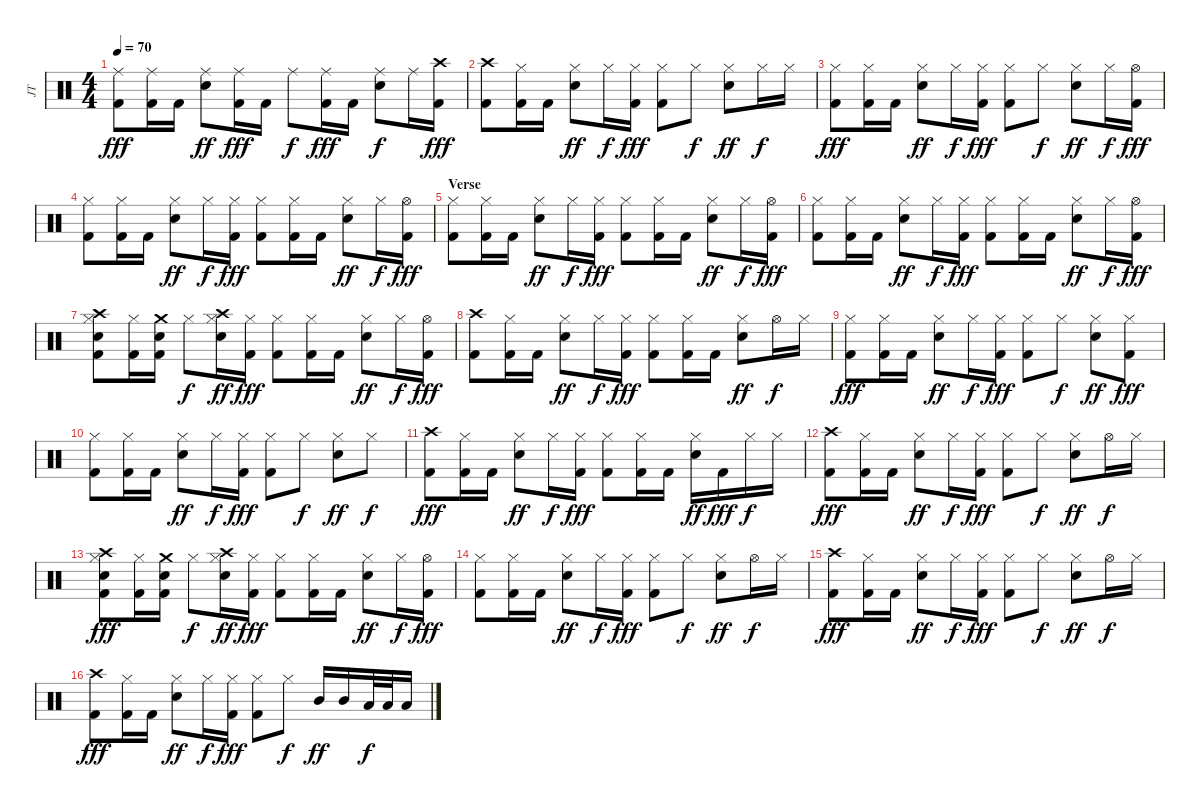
\track ("JT" "JT") {instrument percussion}
\staff {score}
\articulation defaults
\ts (4 4)
\tempo 70
\clef neutral
\ks c
("Ride (middle)" "Kick (hit) 2").8{dy fff} ("Ride (middle)" "Kick (hit) 2").16 "Kick (hit) 2".16 ("Ride (middle)" "Electric Snare (hit)").8{dy ff} ("Ride (middle)" "Kick (hit) 2").16{dy fff} "Kick (hit) 2".16 "Ride (middle)".8{dy f} ("Ride (middle)" "Kick (hit) 2").16{dy fff} "Kick (hit) 2".16 ("Ride (middle)" "Electric Snare (hit)").8{dy f} "Ride (middle)".16 ("Crash high (hit)" "Kick (hit) 2").16{dy fff} |
("Crash high (hit)" "Kick (hit) 2").8 ("Hi-Hat (closed)" "Kick (hit) 2").16 "Kick (hit) 2".16 ("Hi-Hat (closed)" "Electric Snare (hit)").8{dy ff} "Hi-Hat (closed)".16{dy f} ("Hi-Hat (closed)" "Kick (hit) 2").16{dy fff} ("Hi-Hat (closed)" "Kick (hit) 2").8 "Hi-Hat (closed)".8{dy f} ("Hi-Hat (closed)" "Electric Snare (hit)").8{dy ff} "Hi-Hat (closed)".16{dy f} "Hi-Hat (closed)".16 |
("Hi-Hat (closed)" "Kick (hit) 2").8{dy fff} ("Hi-Hat (closed)" "Kick (hit) 2").16 "Kick (hit) 2".16 ("Hi-Hat (closed)" "Electric Snare (hit)").8{dy ff} "Hi-Hat (closed)".16{dy f} ("Hi-Hat (closed)" "Kick (hit) 2").16{dy fff} ("Hi-Hat (closed)" "Kick (hit) 2").8 "Hi-Hat (closed)".8{dy f} ("Hi-Hat (closed)" "Electric Snare (hit)").8{dy ff} "Hi-Hat (closed)".16{dy f} ("Hi-Hat (open)" "Kick (hit) 2").16{dy fff} |
("Hi-Hat (closed)" "Kick (hit) 2").8 ("Hi-Hat (closed)" "Kick (hit) 2").16 "Kick (hit) 2".16 ("Hi-Hat (closed)" "Electric Snare (hit)").8{dy ff} "Hi-Hat (closed)".16{dy f} ("Hi-Hat (closed)" "Kick (hit) 2").16{dy fff} ("Hi-Hat (closed)" "Kick (hit) 2").8 ("Hi-Hat (closed)" "Kick (hit) 2").16 "Kick (hit) 2".16 ("Hi-Hat (closed)" "Electric Snare (hit)").8{dy ff} "Hi-Hat (closed)".16{dy f} ("Hi-Hat (open)" "Kick (hit) 2").16{dy fff} |
\section ("" "Verse")
("Hi-Hat (closed)" "Kick (hit) 2").8 ("Hi-Hat (closed)" "Kick (hit) 2").16 "Kick (hit) 2".16 ("Hi-Hat (closed)" "Electric Snare (hit)").8{dy ff} "Hi-Hat (closed)".16{dy f} ("Hi-Hat (closed)" "Kick (hit) 2").16{dy fff} ("Hi-Hat (closed)" "Kick (hit) 2").8 ("Hi-Hat (closed)" "Kick (hit) 2").16 "Kick (hit) 2".16 ("Hi-Hat (closed)" "Electric Snare (hit)").8{dy ff} "Hi-Hat (closed)".16{dy f} ("Hi-Hat (open)" "Kick (hit) 2").16{dy fff} |
("Hi-Hat (closed)" "Kick (hit) 2").8 ("Hi-Hat (closed)" "Kick (hit) 2").16 "Kick (hit) 2".16 ("Hi-Hat (closed)" "Electric Snare (hit)").8{dy ff} "Hi-Hat (closed)".16{dy f} ("Hi-Hat (closed)" "Kick (hit) 2").16{dy fff} ("Hi-Hat (closed)" "Kick (hit) 2").8 ("Hi-Hat (closed)" "Kick (hit) 2").16 "Kick (hit) 2".16 ("Hi-Hat (closed)" "Electric Snare (hit)").8{dy ff} "Hi-Hat (closed)".16{dy f} ("Hi-Hat (open)" "Kick (hit) 2").16{dy fff} |
("Crash high (hit)" "Hi-Hat (closed)" "Electric Snare (hit)" "Kick (hit) 2").8 ("Hi-Hat (closed)" "Kick (hit) 2").16 ("Crash medium (hit)" "Electric Snare (hit)" "Kick (hit) 2").16 "Hi-Hat (closed)".8{dy f} ("Crash high (hit)" "Hi-Hat (closed)" "Electric Snare (hit)").16{dy ff} ("Hi-Hat (closed)" "Kick (hit) 2").16{dy fff} ("Hi-Hat (closed)" "Kick (hit) 2").8 ("Hi-Hat (closed)" "Kick (hit) 2").16 "Kick (hit) 2".16 ("Hi-Hat (closed)" "Electric Snare (hit)").8{dy ff} "Hi-Hat (closed)".16{dy f} ("Hi-Hat (open)" "Kick (hit) 2").16{dy fff} |
("Crash high (hit)" "Kick (hit) 2").8 ("Hi-Hat (closed)" "Kick (hit) 2").16 "Kick (hit) 2".16 ("Hi-Hat (closed)" "Electric Snare (hit)").8{dy ff} "Hi-Hat (closed)".16{dy f} ("Hi-Hat (closed)" "Kick (hit) 2").16{dy fff} ("Hi-Hat (closed)" "Kick (hit) 2").8 ("Hi-Hat (closed)" "Kick (hit) 2").16 "Kick (hit) 2".16 ("Hi-Hat (closed)" "Electric Snare (hit)").8{dy ff} "Hi-Hat (open)".16{dy f} "Hi-Hat (closed)".16 |
("Hi-Hat (closed)" "Kick (hit) 2").8{dy fff} ("Hi-Hat (closed)" "Kick (hit) 2").16 "Kick (hit) 2".16 ("Hi-Hat (closed)" "Electric Snare (hit)").8{dy ff} "Hi-Hat (closed)".16{dy f} ("Hi-Hat (closed)" "Kick (hit) 2").16{dy fff} ("Hi-Hat (closed)" "Kick (hit) 2").8 "Hi-Hat (closed)".8{dy f} ("Hi-Hat (closed)" "Electric Snare (hit)").8{dy ff} ("Hi-Hat (closed)" "Kick (hit) 2").8{dy fff} |
("Hi-Hat (closed)" "Kick (hit) 2").8 ("Hi-Hat (closed)" "Kick (hit) 2").16 "Kick (hit) 2".16 ("Hi-Hat (closed)" "Electric Snare (hit)").8{dy ff} "Hi-Hat (closed)".16{dy f} ("Hi-Hat (closed)" "Kick (hit) 2").16{dy fff} ("Hi-Hat (closed)" "Kick (hit) 2").8 "Hi-Hat (closed)".8{dy f} ("Hi-Hat (closed)" "Electric Snare (hit)").8{dy ff} "Hi-Hat (closed)".8{dy f} |
("Crash high (hit)" "Kick (hit) 2").8{dy fff} ("Hi-Hat (closed)" "Kick (hit) 2").16 "Kick (hit) 2".16 ("Hi-Hat (closed)" "Electric Snare (hit)").8{dy ff} "Hi-Hat (closed)".16{dy f} ("Hi-Hat (closed)" "Kick (hit) 2").16{dy fff} ("Hi-Hat (closed)" "Kick (hit) 2").8 ("Hi-Hat (closed)" "Kick (hit) 2").16 "Kick (hit) 2".16 ("Hi-Hat (closed)" "Electric Snare (hit)").16{dy ff} "Kick (hit) 2".16{dy fff} "Hi-Hat (closed)".16{dy f} "Hi-Hat (closed)".16 |
("Crash high (hit)" "Kick (hit) 2").8{dy fff} ("Hi-Hat (closed)" "Kick (hit) 2").16 "Kick (hit) 2".16 ("Hi-Hat (closed)" "Electric Snare (hit)").8{dy ff} "Hi-Hat (closed)".16{dy f} ("Hi-Hat (closed)" "Kick (hit) 2").16{dy fff} ("Hi-Hat (closed)" "Kick (hit) 2").8 "Hi-Hat (closed)".8{dy f} ("Hi-Hat (closed)" "Electric Snare (hit)").8{dy ff} "Hi-Hat (open)".16{dy f} "Hi-Hat (closed)".16 |
("Crash high (hit)" "Hi-Hat (closed)" "Electric Snare (hit)" "Kick (hit) 2").8{dy fff} ("Hi-Hat (closed)" "Kick (hit) 2").16 ("Crash medium (hit)" "Electric Snare (hit)" "Kick (hit) 2").16 "Hi-Hat (closed)".8{dy f} ("Crash high (hit)" "Hi-Hat (closed)" "Electric Snare (hit)").16{dy ff} ("Hi-Hat (closed)" "Kick (hit) 2").16{dy fff} ("Hi-Hat (closed)" "Kick (hit) 2").8 ("Hi-Hat (closed)" "Kick (hit) 2").16 "Kick (hit) 2".16 ("Hi-Hat (closed)" "Electric Snare (hit)").8{dy ff} "Hi-Hat (closed)".16{dy f} ("Hi-Hat (open)" "Kick (hit) 2").16{dy fff} |
("Hi-Hat (closed)" "Kick (hit) 2").8 ("Hi-Hat (closed)" "Kick (hit) 2").16 "Kick (hit) 2".16 ("Hi-Hat (closed)" "Electric Snare (hit)").8{dy ff} "Hi-Hat (closed)".16{dy f} ("Hi-Hat (closed)" "Kick (hit) 2").16{dy fff} ("Hi-Hat (closed)" "Kick (hit) 2").8 "Hi-Hat (closed)".8{dy f} ("Hi-Hat (closed)" "Electric Snare (hit)").8{dy ff} "Hi-Hat (open)".16{dy f} "Hi-Hat (closed)".16 |
("Crash high (hit)" "Kick (hit) 2").8{dy fff} ("Hi-Hat (closed)" "Kick (hit) 2").16 "Kick (hit) 2".16 ("Hi-Hat (closed)" "Electric Snare (hit)").8{dy ff} "Hi-Hat (closed)".16{dy f} ("Hi-Hat (closed)" "Kick (hit) 2").16{dy fff} ("Hi-Hat (closed)" "Kick (hit) 2").8 "Hi-Hat (closed)".8{dy f} ("Hi-Hat (closed)" "Electric Snare (hit)").8{dy ff} "Hi-Hat (open)".16{dy f} "Hi-Hat (closed)".16 |
("Crash high (hit)" "Kick (hit) 2").8{dy fff} ("Hi-Hat (closed)" "Kick (hit) 2").16 "Kick (hit) 2".16 ("Hi-Hat (closed)" "Electric Snare (hit)").8{dy ff} "Hi-Hat (closed)".16{dy f} ("Hi-Hat (closed)" "Kick (hit) 2").16{dy fff} ("Hi-Hat (closed)" "Kick (hit) 2").8 "Hi-Hat (closed)".8{dy f} "Mid Tom (hit)".16{dy ff} "Mid Tom (hit)".16 "Low Floor Tom (hit)".32{dy f} "Low Floor Tom (hit)".32 "Low Tom (hit)".16
